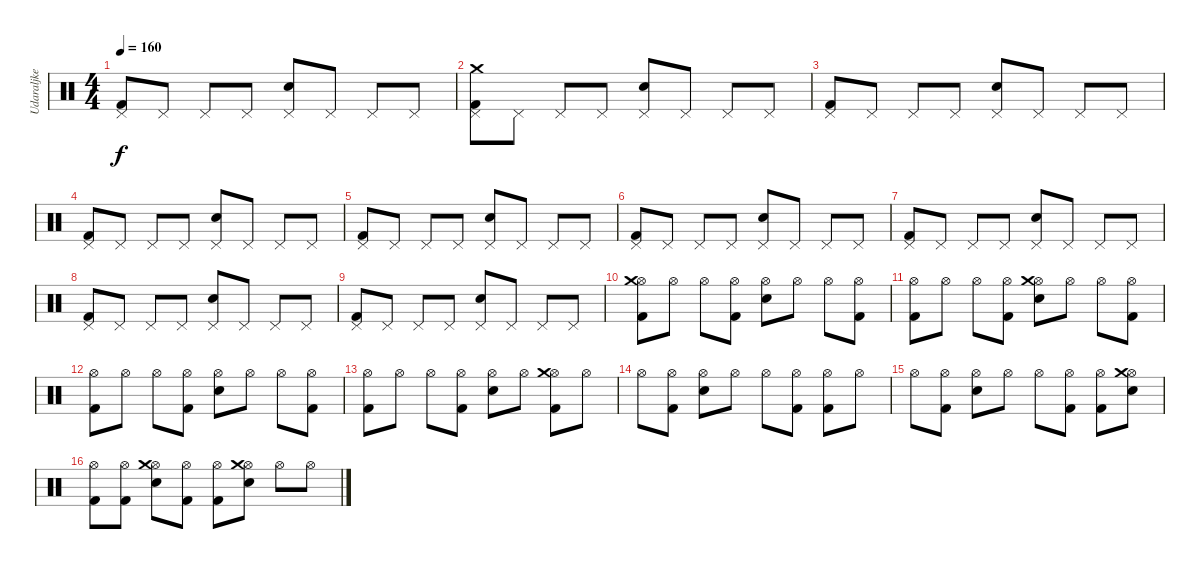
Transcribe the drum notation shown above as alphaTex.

\track ("Udaraljke" "Udaraljke") {instrument percussion}
\staff {score}
\articulation defaults
\ts (4 4)
\tempo 160
\clef neutral
\ks c
("Pedal Hi-Hat (hit)" "Kick (hit) 2").8{dy f} "Pedal Hi-Hat (hit)".8 "Pedal Hi-Hat (hit)".8 "Pedal Hi-Hat (hit)".8 ("Pedal Hi-Hat (hit)" "Snare (hit) 2").8 "Pedal Hi-Hat (hit)".8 "Pedal Hi-Hat (hit)".8 "Pedal Hi-Hat (hit)".8 |
("Pedal Hi-Hat (hit)" "Crash medium (hit)" "Kick (hit) 2").8 "Pedal Hi-Hat (hit)".8 "Pedal Hi-Hat (hit)".8 "Pedal Hi-Hat (hit)".8 ("Pedal Hi-Hat (hit)" "Snare (hit) 2").8 "Pedal Hi-Hat (hit)".8 "Pedal Hi-Hat (hit)".8 "Pedal Hi-Hat (hit)".8 |
("Pedal Hi-Hat (hit)" "Kick (hit) 2").8 "Pedal Hi-Hat (hit)".8 "Pedal Hi-Hat (hit)".8 "Pedal Hi-Hat (hit)".8 ("Pedal Hi-Hat (hit)" "Snare (hit) 2").8 "Pedal Hi-Hat (hit)".8 "Pedal Hi-Hat (hit)".8 "Pedal Hi-Hat (hit)".8 |
("Pedal Hi-Hat (hit)" "Kick (hit) 2").8 "Pedal Hi-Hat (hit)".8 "Pedal Hi-Hat (hit)".8 "Pedal Hi-Hat (hit)".8 ("Pedal Hi-Hat (hit)" "Snare (hit) 2").8 "Pedal Hi-Hat (hit)".8 "Pedal Hi-Hat (hit)".8 "Pedal Hi-Hat (hit)".8 |
("Pedal Hi-Hat (hit)" "Kick (hit) 2").8 "Pedal Hi-Hat (hit)".8 "Pedal Hi-Hat (hit)".8 "Pedal Hi-Hat (hit)".8 ("Pedal Hi-Hat (hit)" "Snare (hit) 2").8 "Pedal Hi-Hat (hit)".8 "Pedal Hi-Hat (hit)".8 "Pedal Hi-Hat (hit)".8 |
("Pedal Hi-Hat (hit)" "Kick (hit) 2").8 "Pedal Hi-Hat (hit)".8 "Pedal Hi-Hat (hit)".8 "Pedal Hi-Hat (hit)".8 ("Pedal Hi-Hat (hit)" "Snare (hit) 2").8 "Pedal Hi-Hat (hit)".8 "Pedal Hi-Hat (hit)".8 "Pedal Hi-Hat (hit)".8 |
("Pedal Hi-Hat (hit)" "Kick (hit) 2").8 "Pedal Hi-Hat (hit)".8 "Pedal Hi-Hat (hit)".8 "Pedal Hi-Hat (hit)".8 ("Pedal Hi-Hat (hit)" "Snare (hit) 2").8 "Pedal Hi-Hat (hit)".8 "Pedal Hi-Hat (hit)".8 "Pedal Hi-Hat (hit)".8 |
("Pedal Hi-Hat (hit)" "Kick (hit) 2").8 "Pedal Hi-Hat (hit)".8 "Pedal Hi-Hat (hit)".8 "Pedal Hi-Hat (hit)".8 ("Pedal Hi-Hat (hit)" "Snare (hit) 2").8 "Pedal Hi-Hat (hit)".8 "Pedal Hi-Hat (hit)".8 "Pedal Hi-Hat (hit)".8 |
("Pedal Hi-Hat (hit)" "Kick (hit) 2").8 "Pedal Hi-Hat (hit)".8 "Pedal Hi-Hat (hit)".8 "Pedal Hi-Hat (hit)".8 ("Pedal Hi-Hat (hit)" "Snare (hit) 2").8 "Pedal Hi-Hat (hit)".8 "Pedal Hi-Hat (hit)".8 "Pedal Hi-Hat (hit)".8 |
("Hi-Hat (open)" "Crash medium (hit)" "Kick (hit) 2").8 "Hi-Hat (open)".8 "Hi-Hat (open)".8 ("Hi-Hat (open)" "Kick (hit) 2").8 ("Hi-Hat (open)" "Snare (hit) 2").8 "Hi-Hat (open)".8 "Hi-Hat (open)".8 ("Hi-Hat (open)" "Kick (hit) 2").8 |
("Hi-Hat (open)" "Kick (hit) 2").8 "Hi-Hat (open)".8 "Hi-Hat (open)".8 ("Hi-Hat (open)" "Kick (hit) 2").8 ("Hi-Hat (open)" "Crash medium (hit)" "Snare (hit) 2").8 "Hi-Hat (open)".8 "Hi-Hat (open)".8 ("Hi-Hat (open)" "Kick (hit) 2").8 |
("Hi-Hat (open)" "Kick (hit) 2").8 "Hi-Hat (open)".8 "Hi-Hat (open)".8 ("Hi-Hat (open)" "Kick (hit) 2").8 ("Hi-Hat (open)" "Snare (hit) 2").8 "Hi-Hat (open)".8 "Hi-Hat (open)".8 ("Hi-Hat (open)" "Kick (hit) 2").8 |
("Hi-Hat (open)" "Kick (hit) 2").8 "Hi-Hat (open)".8 "Hi-Hat (open)".8 ("Hi-Hat (open)" "Kick (hit) 2").8 ("Hi-Hat (open)" "Snare (hit) 2").8 "Hi-Hat (open)".8 ("Hi-Hat (open)" "Crash medium (hit)" "Kick (hit) 2").8 "Hi-Hat (open)".8 |
"Hi-Hat (open)".8 ("Hi-Hat (open)" "Kick (hit) 2").8 ("Hi-Hat (open)" "Snare (hit) 2").8 "Hi-Hat (open)".8 "Hi-Hat (open)".8 ("Hi-Hat (open)" "Kick (hit) 2").8 ("Hi-Hat (open)" "Kick (hit) 2").8 "Hi-Hat (open)".8 |
"Hi-Hat (open)".8 ("Hi-Hat (open)" "Kick (hit) 2").8 ("Hi-Hat (open)" "Snare (hit) 2").8 "Hi-Hat (open)".8 "Hi-Hat (open)".8 ("Hi-Hat (open)" "Kick (hit) 2").8 ("Hi-Hat (open)" "Kick (hit) 2").8 ("Hi-Hat (open)" "Crash medium (hit)" "Snare (hit) 2").8 |
("Hi-Hat (open)" "Kick (hit) 2").8 ("Hi-Hat (open)" "Kick (hit) 2").8 ("Hi-Hat (open)" "Crash medium (hit)" "Snare (hit) 2").8 ("Hi-Hat (open)" "Kick (hit) 2").8 ("Hi-Hat (open)" "Kick (hit) 2").8 ("Hi-Hat (open)" "Crash medium (hit)" "Snare (hit) 2").8 "Hi-Hat (open)".8 "Hi-Hat (open)".8
